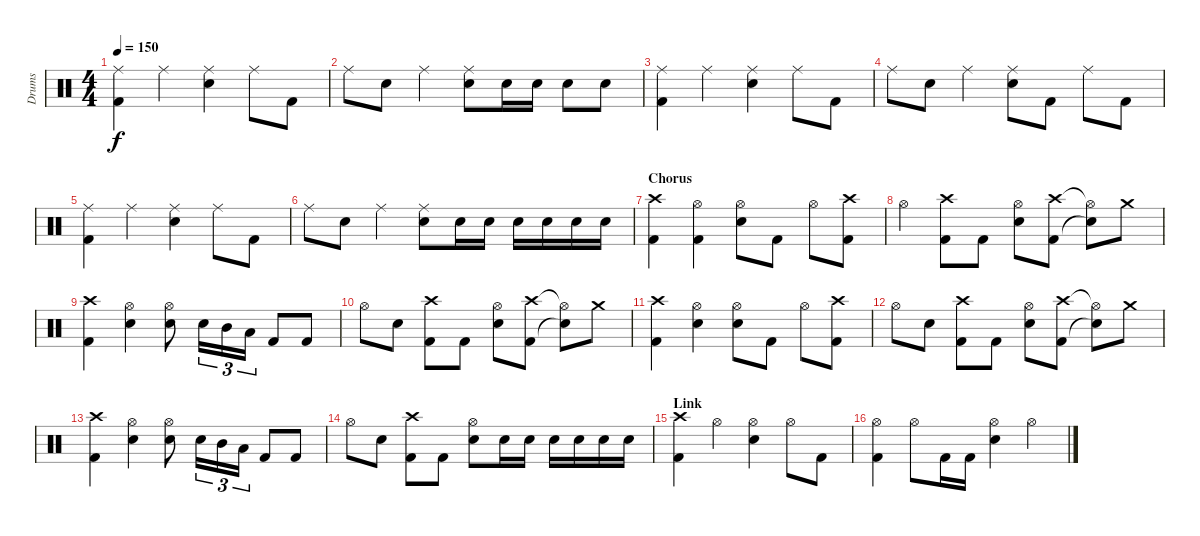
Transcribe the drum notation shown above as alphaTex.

\track ("Drums" "Drums") {instrument percussion}
\staff {score}
\articulation defaults
\ts (4 4)
\tempo 150
\clef neutral
\ks c
("Ride (middle)" "Kick (hit) 2").4{dy f} "Ride (middle)".4 ("Ride (middle)" "Electric Snare (hit)").4 "Ride (middle)".8 "Kick (hit) 2".8 |
"Ride (middle)".8 "Electric Snare (hit)".8 "Ride (middle)".4 ("Ride (middle)" "Electric Snare (hit)").8 "Electric Snare (hit)".16 "Electric Snare (hit)".16 "Electric Snare (hit)".8 "Electric Snare (hit)".8 |
("Ride (middle)" "Kick (hit) 2").4 "Ride (middle)".4 ("Ride (middle)" "Electric Snare (hit)").4 "Ride (middle)".8 "Kick (hit) 2".8 |
"Ride (middle)".8 "Electric Snare (hit)".8 "Ride (middle)".4 ("Ride (middle)" "Electric Snare (hit)").8 "Kick (hit) 2".8 "Ride (middle)".8 "Kick (hit) 2".8 |
("Ride (middle)" "Kick (hit) 2").4 "Ride (middle)".4 ("Ride (middle)" "Electric Snare (hit)").4 "Ride (middle)".8 "Kick (hit) 2".8 |
"Ride (middle)".8 "Electric Snare (hit)".8 "Ride (middle)".4 ("Ride (middle)" "Electric Snare (hit)").8 "Electric Snare (hit)".16 "Electric Snare (hit)".16 "Electric Snare (hit)".16 "Electric Snare (hit)".16 "Electric Snare (hit)".16 "Electric Snare (hit)".16 |
\section ("" "Chorus")
("Crash high (hit)" "Kick (hit) 2").4 ("Hi-Hat (open)" "Kick (hit) 2").4 ("Hi-Hat (open)" "Electric Snare (hit)").8 "Kick (hit) 2".8 "Hi-Hat (open)".8 ("Crash high (hit)" "Kick (hit) 2").8 |
"Hi-Hat (open)".4 ("Crash high (hit)" "Kick (hit) 2").8 "Kick (hit) 2".8 ("Hi-Hat (open)" "Electric Snare (hit)").8 ("Crash high (hit)" "Kick (hit) 2").8 ("Hi-Hat (open)"{t} "Snare (hit)"{t}).8 "Crash medium (hit)".8 |
("Crash high (hit)" "Kick (hit) 2").4 ("Hi-Hat (open)" "Electric Snare (hit)").4 ("Hi-Hat (open)" "Electric Snare (hit)").8 "Electric Snare (hit)".16{tu (3 2)} "Mid Tom (hit)".16{tu (3 2)} "Low Tom (hit)".16{tu (3 2)} "Kick (hit) 2".8 "Kick (hit) 2".8 |
"Hi-Hat (open)".8 "Electric Snare (hit)".8 ("Crash high (hit)" "Kick (hit) 2").8 "Kick (hit) 2".8 ("Hi-Hat (open)" "Electric Snare (hit)").8 ("Crash high (hit)" "Kick (hit) 2").8 ("Hi-Hat (open)"{t} "Snare (hit)"{t}).8 "Crash medium (hit)".8 |
("Crash high (hit)" "Kick (hit) 2").4 ("Hi-Hat (open)" "Electric Snare (hit)").4 ("Hi-Hat (open)" "Electric Snare (hit)").8 "Kick (hit) 2".8 "Hi-Hat (open)".8 ("Crash high (hit)" "Kick (hit) 2").8 |
"Hi-Hat (open)".8 "Electric Snare (hit)".8 ("Crash high (hit)" "Kick (hit) 2").8 "Kick (hit) 2".8 ("Hi-Hat (open)" "Electric Snare (hit)").8 ("Crash high (hit)" "Kick (hit) 2").8 ("Hi-Hat (open)"{t} "Snare (hit)"{t}).8 "Crash medium (hit)".8 |
("Crash high (hit)" "Kick (hit) 2").4 ("Hi-Hat (open)" "Electric Snare (hit)").4 ("Hi-Hat (open)" "Electric Snare (hit)").8 "Electric Snare (hit)".16{tu (3 2)} "Mid Tom (hit)".16{tu (3 2)} "Low Tom (hit)".16{tu (3 2)} "Kick (hit) 2".8 "Kick (hit) 2".8 |
"Hi-Hat (open)".8 "Electric Snare (hit)".8 ("Crash high (hit)" "Kick (hit) 2").8 "Kick (hit) 2".8 ("Hi-Hat (open)" "Electric Snare (hit)").8 "Electric Snare (hit)".16 "Electric Snare (hit)".16 "Electric Snare (hit)".16 "Electric Snare (hit)".16 "Electric Snare (hit)".16 "Electric Snare (hit)".16 |
\section ("" "Link")
("Crash high (hit)" "Kick (hit) 2").4 "Hi-Hat (open)".4 ("Hi-Hat (open)" "Electric Snare (hit)").4 "Hi-Hat (open)".8 "Kick (hit) 2".8 |
("Hi-Hat (open)" "Kick (hit) 2").4 "Hi-Hat (open)".8 "Kick (hit) 2".16 "Kick (hit) 2".16 ("Hi-Hat (open)" "Electric Snare (hit)").4 "Hi-Hat (open)".4
